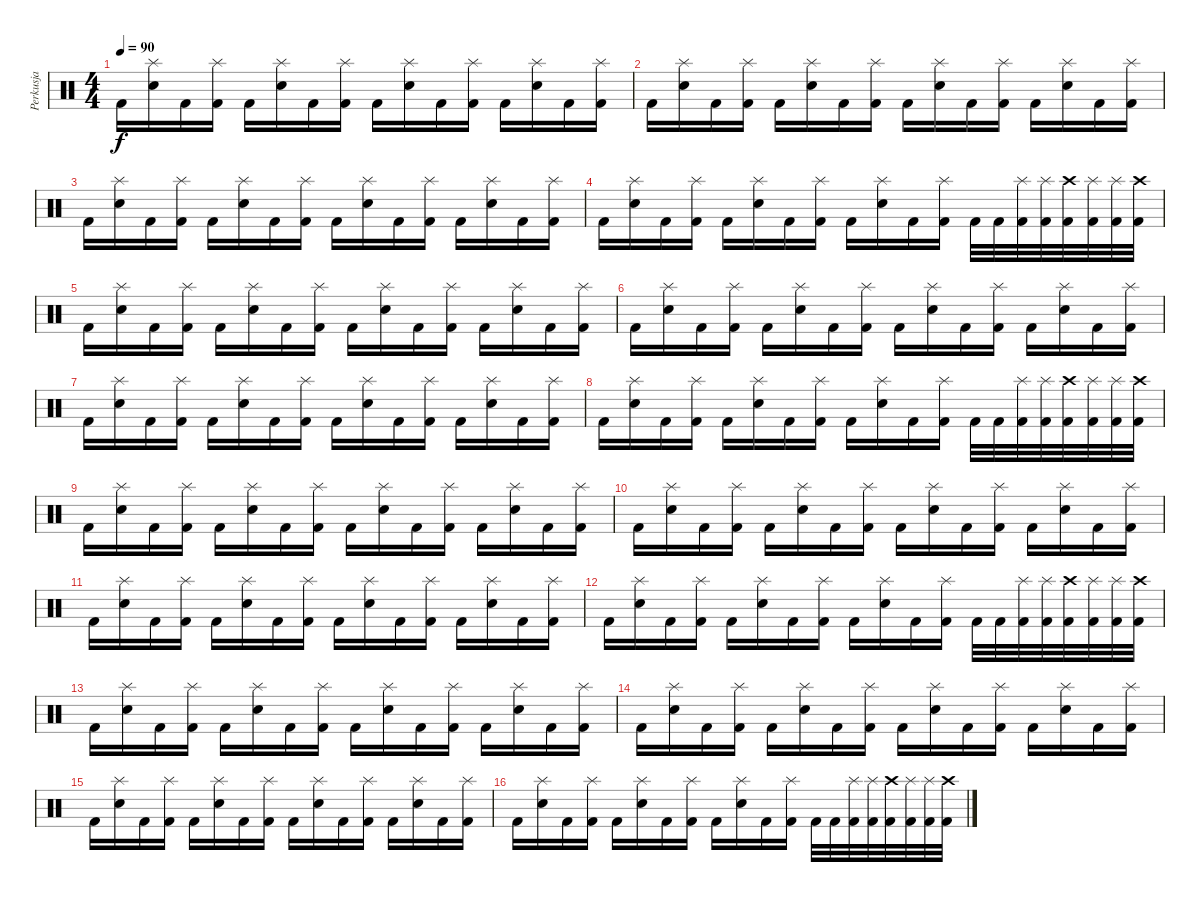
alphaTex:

\track ("Perkusja" "Perkusja") {instrument percussion}
\staff {score}
\articulation defaults
\ts (4 4)
\tempo 90
\clef neutral
\ks c "Kick (hit) 2".16{dy f}
("Splash (hit)" "Snare (hit) 2").16 "Kick (hit) 2".16 ("Splash (hit)" "Kick (hit) 2").16 "Kick (hit) 2".16 ("Splash (hit)" "Snare (hit) 2").16 "Kick (hit) 2".16 ("Splash (hit)" "Kick (hit) 2").16 "Kick (hit) 2".16 ("Splash (hit)" "Snare (hit) 2").16 "Kick (hit) 2".16 ("Splash (hit)" "Kick (hit) 2").16 "Kick (hit) 2".16 ("Splash (hit)" "Snare (hit) 2").16 "Kick (hit) 2".16 ("Splash (hit)" "Kick (hit) 2").16 |
"Kick (hit) 2".16 ("Splash (hit)" "Snare (hit) 2").16 "Kick (hit) 2".16 ("Splash (hit)" "Kick (hit) 2").16 "Kick (hit) 2".16 ("Splash (hit)" "Snare (hit) 2").16 "Kick (hit) 2".16 ("Splash (hit)" "Kick (hit) 2").16 "Kick (hit) 2".16 ("Splash (hit)" "Snare (hit) 2").16 "Kick (hit) 2".16 ("Splash (hit)" "Kick (hit) 2").16 "Kick (hit) 2".16 ("Splash (hit)" "Snare (hit) 2").16 "Kick (hit) 2".16 ("Splash (hit)" "Kick (hit) 2").16 |
"Kick (hit) 2".16 ("Splash (hit)" "Snare (hit) 2").16 "Kick (hit) 2".16 ("Splash (hit)" "Kick (hit) 2").16 "Kick (hit) 2".16 ("Splash (hit)" "Snare (hit) 2").16 "Kick (hit) 2".16 ("Splash (hit)" "Kick (hit) 2").16 "Kick (hit) 2".16 ("Splash (hit)" "Snare (hit) 2").16 "Kick (hit) 2".16 ("Splash (hit)" "Kick (hit) 2").16 "Kick (hit) 2".16 ("Splash (hit)" "Snare (hit) 2").16 "Kick (hit) 2".16 ("Splash (hit)" "Kick (hit) 2").16 |
"Kick (hit) 2".16 ("Splash (hit)" "Snare (hit) 2").16 "Kick (hit) 2".16 ("Splash (hit)" "Kick (hit) 2").16 "Kick (hit) 2".16 ("Splash (hit)" "Snare (hit) 2").16 "Kick (hit) 2".16 ("Splash (hit)" "Kick (hit) 2").16 "Kick (hit) 2".16 ("Splash (hit)" "Snare (hit) 2").16 "Kick (hit) 2".16 ("Splash (hit)" "Kick (hit) 2").16 "Kick (hit) 2".32 "Kick (hit) 2".32 ("Splash (hit)" "Kick (hit) 2").32 ("Splash (hit)" "Kick (hit) 2").32 ("Crash high (hit)" "Kick (hit) 2").32 ("Splash (hit)" "Kick (hit) 2").32 ("Splash (hit)" "Kick (hit) 2").32 ("Crash high (hit)" "Kick (hit) 2").32 |
"Kick (hit) 2".16 ("Splash (hit)" "Snare (hit) 2").16 "Kick (hit) 2".16 ("Splash (hit)" "Kick (hit) 2").16 "Kick (hit) 2".16 ("Splash (hit)" "Snare (hit) 2").16 "Kick (hit) 2".16 ("Splash (hit)" "Kick (hit) 2").16 "Kick (hit) 2".16 ("Splash (hit)" "Snare (hit) 2").16 "Kick (hit) 2".16 ("Splash (hit)" "Kick (hit) 2").16 "Kick (hit) 2".16 ("Splash (hit)" "Snare (hit) 2").16 "Kick (hit) 2".16 ("Splash (hit)" "Kick (hit) 2").16 |
"Kick (hit) 2".16 ("Splash (hit)" "Snare (hit) 2").16 "Kick (hit) 2".16 ("Splash (hit)" "Kick (hit) 2").16 "Kick (hit) 2".16 ("Splash (hit)" "Snare (hit) 2").16 "Kick (hit) 2".16 ("Splash (hit)" "Kick (hit) 2").16 "Kick (hit) 2".16 ("Splash (hit)" "Snare (hit) 2").16 "Kick (hit) 2".16 ("Splash (hit)" "Kick (hit) 2").16 "Kick (hit) 2".16 ("Splash (hit)" "Snare (hit) 2").16 "Kick (hit) 2".16 ("Splash (hit)" "Kick (hit) 2").16 |
"Kick (hit) 2".16 ("Splash (hit)" "Snare (hit) 2").16 "Kick (hit) 2".16 ("Splash (hit)" "Kick (hit) 2").16 "Kick (hit) 2".16 ("Splash (hit)" "Snare (hit) 2").16 "Kick (hit) 2".16 ("Splash (hit)" "Kick (hit) 2").16 "Kick (hit) 2".16 ("Splash (hit)" "Snare (hit) 2").16 "Kick (hit) 2".16 ("Splash (hit)" "Kick (hit) 2").16 "Kick (hit) 2".16 ("Splash (hit)" "Snare (hit) 2").16 "Kick (hit) 2".16 ("Splash (hit)" "Kick (hit) 2").16 |
"Kick (hit) 2".16 ("Splash (hit)" "Snare (hit) 2").16 "Kick (hit) 2".16 ("Splash (hit)" "Kick (hit) 2").16 "Kick (hit) 2".16 ("Splash (hit)" "Snare (hit) 2").16 "Kick (hit) 2".16 ("Splash (hit)" "Kick (hit) 2").16 "Kick (hit) 2".16 ("Splash (hit)" "Snare (hit) 2").16 "Kick (hit) 2".16 ("Splash (hit)" "Kick (hit) 2").16 "Kick (hit) 2".32 "Kick (hit) 2".32 ("Splash (hit)" "Kick (hit) 2").32 ("Splash (hit)" "Kick (hit) 2").32 ("Crash high (hit)" "Kick (hit) 2").32 ("Splash (hit)" "Kick (hit) 2").32 ("Splash (hit)" "Kick (hit) 2").32 ("Crash high (hit)" "Kick (hit) 2").32 |
"Kick (hit) 2".16 ("Splash (hit)" "Snare (hit) 2").16 "Kick (hit) 2".16 ("Splash (hit)" "Kick (hit) 2").16 "Kick (hit) 2".16 ("Splash (hit)" "Snare (hit) 2").16 "Kick (hit) 2".16 ("Splash (hit)" "Kick (hit) 2").16 "Kick (hit) 2".16 ("Splash (hit)" "Snare (hit) 2").16 "Kick (hit) 2".16 ("Splash (hit)" "Kick (hit) 2").16 "Kick (hit) 2".16 ("Splash (hit)" "Snare (hit) 2").16 "Kick (hit) 2".16 ("Splash (hit)" "Kick (hit) 2").16 |
"Kick (hit) 2".16 ("Splash (hit)" "Snare (hit) 2").16 "Kick (hit) 2".16 ("Splash (hit)" "Kick (hit) 2").16 "Kick (hit) 2".16 ("Splash (hit)" "Snare (hit) 2").16 "Kick (hit) 2".16 ("Splash (hit)" "Kick (hit) 2").16 "Kick (hit) 2".16 ("Splash (hit)" "Snare (hit) 2").16 "Kick (hit) 2".16 ("Splash (hit)" "Kick (hit) 2").16 "Kick (hit) 2".16 ("Splash (hit)" "Snare (hit) 2").16 "Kick (hit) 2".16 ("Splash (hit)" "Kick (hit) 2").16 |
"Kick (hit) 2".16 ("Splash (hit)" "Snare (hit) 2").16 "Kick (hit) 2".16 ("Splash (hit)" "Kick (hit) 2").16 "Kick (hit) 2".16 ("Splash (hit)" "Snare (hit) 2").16 "Kick (hit) 2".16 ("Splash (hit)" "Kick (hit) 2").16 "Kick (hit) 2".16 ("Splash (hit)" "Snare (hit) 2").16 "Kick (hit) 2".16 ("Splash (hit)" "Kick (hit) 2").16 "Kick (hit) 2".16 ("Splash (hit)" "Snare (hit) 2").16 "Kick (hit) 2".16 ("Splash (hit)" "Kick (hit) 2").16 |
"Kick (hit) 2".16 ("Splash (hit)" "Snare (hit) 2").16 "Kick (hit) 2".16 ("Splash (hit)" "Kick (hit) 2").16 "Kick (hit) 2".16 ("Splash (hit)" "Snare (hit) 2").16 "Kick (hit) 2".16 ("Splash (hit)" "Kick (hit) 2").16 "Kick (hit) 2".16 ("Splash (hit)" "Snare (hit) 2").16 "Kick (hit) 2".16 ("Splash (hit)" "Kick (hit) 2").16 "Kick (hit) 2".32 "Kick (hit) 2".32 ("Splash (hit)" "Kick (hit) 2").32 ("Splash (hit)" "Kick (hit) 2").32 ("Crash high (hit)" "Kick (hit) 2").32 ("Splash (hit)" "Kick (hit) 2").32 ("Splash (hit)" "Kick (hit) 2").32 ("Crash high (hit)" "Kick (hit) 2").32 |
"Kick (hit) 2".16 ("Splash (hit)" "Snare (hit) 2").16 "Kick (hit) 2".16 ("Splash (hit)" "Kick (hit) 2").16 "Kick (hit) 2".16 ("Splash (hit)" "Snare (hit) 2").16 "Kick (hit) 2".16 ("Splash (hit)" "Kick (hit) 2").16 "Kick (hit) 2".16 ("Splash (hit)" "Snare (hit) 2").16 "Kick (hit) 2".16 ("Splash (hit)" "Kick (hit) 2").16 "Kick (hit) 2".16 ("Splash (hit)" "Snare (hit) 2").16 "Kick (hit) 2".16 ("Splash (hit)" "Kick (hit) 2").16 |
"Kick (hit) 2".16 ("Splash (hit)" "Snare (hit) 2").16 "Kick (hit) 2".16 ("Splash (hit)" "Kick (hit) 2").16 "Kick (hit) 2".16 ("Splash (hit)" "Snare (hit) 2").16 "Kick (hit) 2".16 ("Splash (hit)" "Kick (hit) 2").16 "Kick (hit) 2".16 ("Splash (hit)" "Snare (hit) 2").16 "Kick (hit) 2".16 ("Splash (hit)" "Kick (hit) 2").16 "Kick (hit) 2".16 ("Splash (hit)" "Snare (hit) 2").16 "Kick (hit) 2".16 ("Splash (hit)" "Kick (hit) 2").16 |
"Kick (hit) 2".16 ("Splash (hit)" "Snare (hit) 2").16 "Kick (hit) 2".16 ("Splash (hit)" "Kick (hit) 2").16 "Kick (hit) 2".16 ("Splash (hit)" "Snare (hit) 2").16 "Kick (hit) 2".16 ("Splash (hit)" "Kick (hit) 2").16 "Kick (hit) 2".16 ("Splash (hit)" "Snare (hit) 2").16 "Kick (hit) 2".16 ("Splash (hit)" "Kick (hit) 2").16 "Kick (hit) 2".16 ("Splash (hit)" "Snare (hit) 2").16 "Kick (hit) 2".16 ("Splash (hit)" "Kick (hit) 2").16 |
"Kick (hit) 2".16 ("Splash (hit)" "Snare (hit) 2").16 "Kick (hit) 2".16 ("Splash (hit)" "Kick (hit) 2").16 "Kick (hit) 2".16 ("Splash (hit)" "Snare (hit) 2").16 "Kick (hit) 2".16 ("Splash (hit)" "Kick (hit) 2").16 "Kick (hit) 2".16 ("Splash (hit)" "Snare (hit) 2").16 "Kick (hit) 2".16 ("Splash (hit)" "Kick (hit) 2").16 "Kick (hit) 2".32 "Kick (hit) 2".32 ("Splash (hit)" "Kick (hit) 2").32 ("Splash (hit)" "Kick (hit) 2").32 ("Crash high (hit)" "Kick (hit) 2").32 ("Splash (hit)" "Kick (hit) 2").32 ("Splash (hit)" "Kick (hit) 2").32 ("Crash high (hit)" "Kick (hit) 2").32
